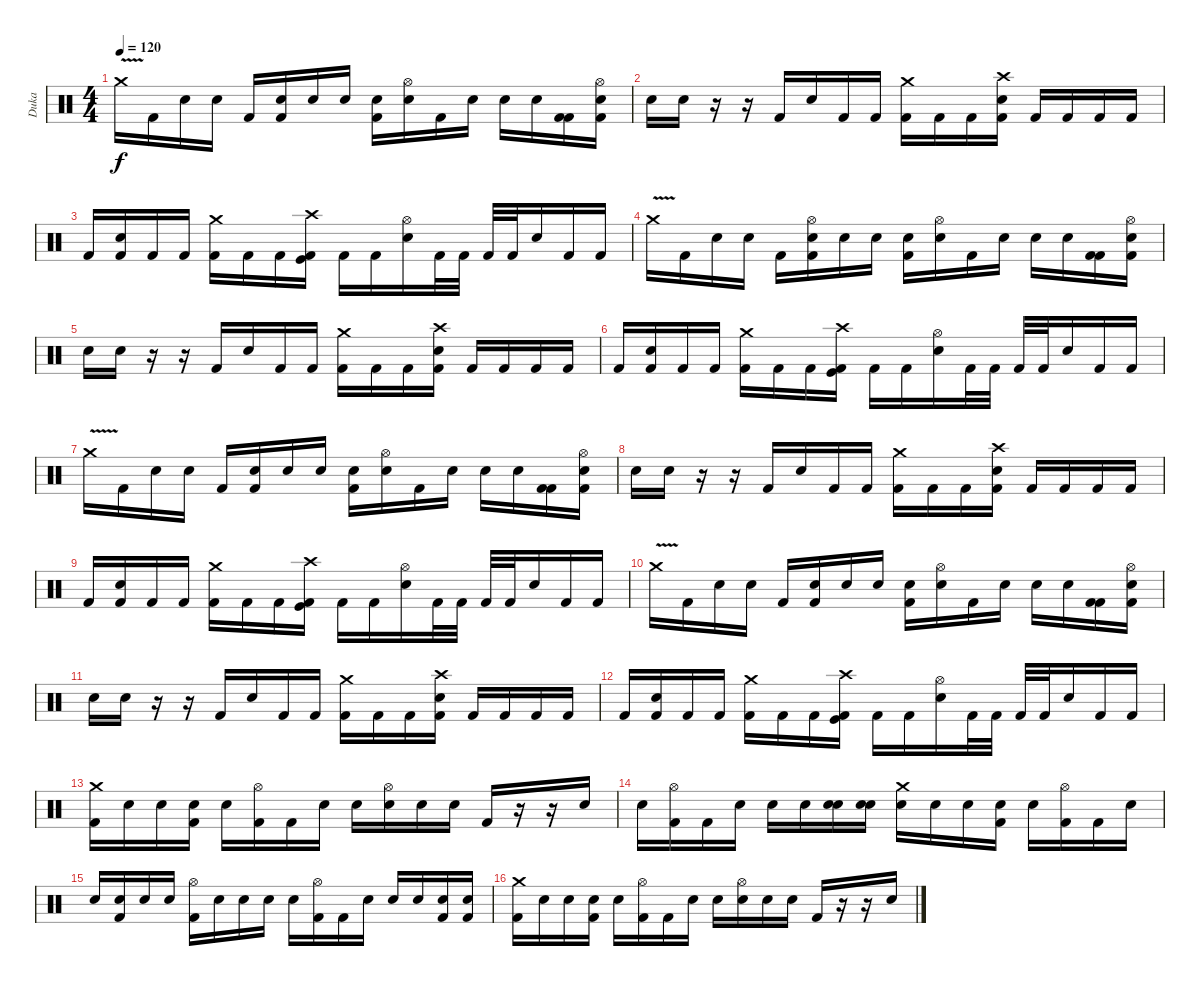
\track ("Duka" "Duka") {instrument percussion}
\staff {score}
\articulation defaults
\ts (4 4)
\tempo 120
\clef neutral
\ks c "Crash medium (hit)"{v}.16{dy f} "Kick (hit) 2".16 "Snare (hit)".16 "Snare (hit) 2".16 "Kick (hit) 2".16
("Snare (hit)" "Kick (hit) 2").16 "Snare (hit)".16 "Snare (hit)".16 ("Snare (hit)" "Kick (hit) 2").16 ("Hi-Hat (open)" "Snare (hit) 2").16 "Kick (hit) 2".16 "Snare (hit)".16 "Snare (hit)".16 "Snare (hit)".16 ("Kick (hit) 2" "Kick (hit) 2").16 ("Hi-Hat (open)" "Snare (hit) 2" "Kick (hit) 2").16 |
"Snare (hit)".16 "Snare (hit)".16 r.16 r.16 "Kick (hit) 2".16 "Snare (hit) 2".16 "Kick (hit) 2".16 "Kick (hit) 2".16 ("Kick (hit) 2" "Crash medium (hit)").16 "Kick (hit) 2".16 "Kick (hit) 2".16 ("Crash high (hit)" "Snare (hit) 2" "Kick (hit) 2").16 "Kick (hit) 2".16 "Kick (hit) 2".16 "Kick (hit) 2".16 "Kick (hit) 2".16 |
"Kick (hit) 2".16 ("Snare (hit) 2" "Kick (hit) 2").16 "Kick (hit) 2".16 "Kick (hit) 2".16 ("Crash medium (hit)" "Kick (hit) 2").16 "Kick (hit) 2".16 "Kick (hit) 2".16 ("Crash high (hit)" "Kick (hit)" "Kick (hit) 2").16 "Kick (hit) 2".16 "Kick (hit) 2".16 ("Hi-Hat (open)" "Snare (hit) 2").16 "Kick (hit) 2".32 "Kick (hit) 2".32 "Kick (hit) 2".32 "Kick (hit) 2".32 "Snare (hit) 2".16 "Kick (hit) 2".16 "Kick (hit) 2".16 |
"Crash medium (hit)"{v}.16 "Kick (hit) 2".16 "Snare (hit)".16 "Snare (hit) 2".16 "Kick (hit) 2".16 ("Hi-Hat (open)" "Snare (hit)" "Kick (hit) 2").16 "Snare (hit)".16 "Snare (hit)".16 ("Snare (hit)" "Kick (hit) 2").16 ("Hi-Hat (open)" "Snare (hit) 2").16 "Kick (hit) 2".16 "Snare (hit)".16 "Snare (hit)".16 "Snare (hit)".16 ("Kick (hit) 2" "Kick (hit) 2").16 ("Hi-Hat (open)" "Snare (hit) 2" "Kick (hit) 2").16 |
"Snare (hit)".16 "Snare (hit)".16 r.16 r.16 "Kick (hit) 2".16 "Snare (hit) 2".16 "Kick (hit) 2".16 "Kick (hit) 2".16 ("Kick (hit) 2" "Crash medium (hit)").16 "Kick (hit) 2".16 "Kick (hit) 2".16 ("Crash high (hit)" "Snare (hit) 2" "Kick (hit) 2").16 "Kick (hit) 2".16 "Kick (hit) 2".16 "Kick (hit) 2".16 "Kick (hit) 2".16 |
"Kick (hit) 2".16 ("Snare (hit) 2" "Kick (hit) 2").16 "Kick (hit) 2".16 "Kick (hit) 2".16 ("Crash medium (hit)" "Kick (hit) 2").16 "Kick (hit) 2".16 "Kick (hit) 2".16 ("Crash high (hit)" "Kick (hit)" "Kick (hit) 2").16 "Kick (hit) 2".16 "Kick (hit) 2".16 ("Hi-Hat (open)" "Snare (hit) 2").16 "Kick (hit) 2".32 "Kick (hit) 2".32 "Kick (hit) 2".32 "Kick (hit) 2".32 "Snare (hit) 2".16 "Kick (hit) 2".16 "Kick (hit) 2".16 |
"Crash medium (hit)"{v}.16 "Kick (hit) 2".16 "Snare (hit)".16 "Snare (hit) 2".16 "Kick (hit) 2".16 ("Snare (hit)" "Kick (hit) 2").16 "Snare (hit)".16 "Snare (hit)".16 ("Snare (hit)" "Kick (hit) 2").16 ("Hi-Hat (open)" "Snare (hit) 2").16 "Kick (hit) 2".16 "Snare (hit)".16 "Snare (hit)".16 "Snare (hit)".16 ("Kick (hit) 2" "Kick (hit) 2").16 ("Hi-Hat (open)" "Snare (hit) 2" "Kick (hit) 2").16 |
"Snare (hit)".16 "Snare (hit)".16 r.16 r.16 "Kick (hit) 2".16 "Snare (hit) 2".16 "Kick (hit) 2".16 "Kick (hit) 2".16 ("Kick (hit) 2" "Crash medium (hit)").16 "Kick (hit) 2".16 "Kick (hit) 2".16 ("Crash high (hit)" "Snare (hit) 2" "Kick (hit) 2").16 "Kick (hit) 2".16 "Kick (hit) 2".16 "Kick (hit) 2".16 "Kick (hit) 2".16 |
"Kick (hit) 2".16 ("Snare (hit) 2" "Kick (hit) 2").16 "Kick (hit) 2".16 "Kick (hit) 2".16 ("Crash medium (hit)" "Kick (hit) 2").16 "Kick (hit) 2".16 "Kick (hit) 2".16 ("Crash high (hit)" "Kick (hit)" "Kick (hit) 2").16 "Kick (hit) 2".16 "Kick (hit) 2".16 ("Hi-Hat (open)" "Snare (hit) 2").16 "Kick (hit) 2".32 "Kick (hit) 2".32 "Kick (hit) 2".32 "Kick (hit) 2".32 "Snare (hit) 2".16 "Kick (hit) 2".16 "Kick (hit) 2".16 |
"Crash medium (hit)"{v}.16 "Kick (hit) 2".16 "Snare (hit)".16 "Snare (hit) 2".16 "Kick (hit) 2".16 ("Snare (hit)" "Kick (hit) 2").16 "Snare (hit)".16 "Snare (hit)".16 ("Snare (hit)" "Kick (hit) 2").16 ("Hi-Hat (open)" "Snare (hit) 2").16 "Kick (hit) 2".16 "Snare (hit)".16 "Snare (hit)".16 "Snare (hit)".16 ("Kick (hit) 2" "Kick (hit) 2").16 ("Hi-Hat (open)" "Snare (hit) 2" "Kick (hit) 2").16 |
"Snare (hit)".16 "Snare (hit)".16 r.16 r.16 "Kick (hit) 2".16 "Snare (hit) 2".16 "Kick (hit) 2".16 "Kick (hit) 2".16 ("Kick (hit) 2" "Crash medium (hit)").16 "Kick (hit) 2".16 "Kick (hit) 2".16 ("Crash high (hit)" "Snare (hit) 2" "Kick (hit) 2").16 "Kick (hit) 2".16 "Kick (hit) 2".16 "Kick (hit) 2".16 "Kick (hit) 2".16 |
"Kick (hit) 2".16 ("Snare (hit) 2" "Kick (hit) 2").16 "Kick (hit) 2".16 "Kick (hit) 2".16 ("Crash medium (hit)" "Kick (hit) 2").16 "Kick (hit) 2".16 "Kick (hit) 2".16 ("Crash high (hit)" "Kick (hit)" "Kick (hit) 2").16 "Kick (hit) 2".16 "Kick (hit) 2".16 ("Hi-Hat (open)" "Snare (hit) 2").16 "Kick (hit) 2".32 "Kick (hit) 2".32 "Kick (hit) 2".32 "Kick (hit) 2".32 "Snare (hit) 2".16 "Kick (hit) 2".16 "Kick (hit) 2".16 |
("Crash medium (hit)" "Kick (hit) 2").16 "Snare (hit)".16 "Snare (hit)".16 ("Snare (hit) 2" "Kick (hit) 2").16 "Snare (hit)".16 ("Hi-Hat (open)" "Kick (hit) 2").16 "Kick (hit) 2".16 "Snare (hit)".16 "Snare (hit)".16 ("Hi-Hat (open)" "Snare (hit) 2").16 "Snare (hit)".16 "Snare (hit)".16 "Kick (hit) 2".16 r.16 r.16 "Snare (hit) 2".16 |
"Snare (hit)".16 ("Hi-Hat (open)" "Kick (hit) 2").16 "Kick (hit) 2".16 "Snare (hit)".16 "Snare (hit)".16 "Snare (hit) 2".16 ("Snare (hit) 2" "Snare (hit)").16 ("Snare (hit) 2" "Snare (hit)").16 ("Snare (hit) 2" "Crash medium (hit)").16 "Snare (hit)".16 "Snare (hit)".16 ("Snare (hit) 2" "Kick (hit) 2").16 "Snare (hit)".16 ("Hi-Hat (open)" "Kick (hit) 2").16 "Kick (hit) 2".16 "Snare (hit)".16 |
"Snare (hit)".16 ("Snare (hit) 2" "Kick (hit) 2").16 "Snare (hit)".16 "Snare (hit)".16 ("Kick (hit) 2" "Hi-Hat (open)").16 "Snare (hit)".16 "Snare (hit)".16 "Snare (hit) 2".16 "Snare (hit)".16 ("Hi-Hat (open)" "Kick (hit) 2").16 "Kick (hit) 2".16 "Snare (hit)".16 "Snare (hit)".16 "Snare (hit) 2".16 ("Kick (hit) 2" "Snare (hit)").16 ("Kick (hit) 2" "Snare (hit)").16 |
("Crash medium (hit)" "Kick (hit) 2").16 "Snare (hit)".16 "Snare (hit)".16 ("Snare (hit) 2" "Kick (hit) 2").16 "Snare (hit)".16 ("Hi-Hat (open)" "Kick (hit) 2").16 "Kick (hit) 2".16 "Snare (hit)".16 "Snare (hit)".16 ("Hi-Hat (open)" "Snare (hit) 2").16 "Snare (hit)".16 "Snare (hit)".16 "Kick (hit) 2".16 r.16 r.16 "Snare (hit) 2".16
